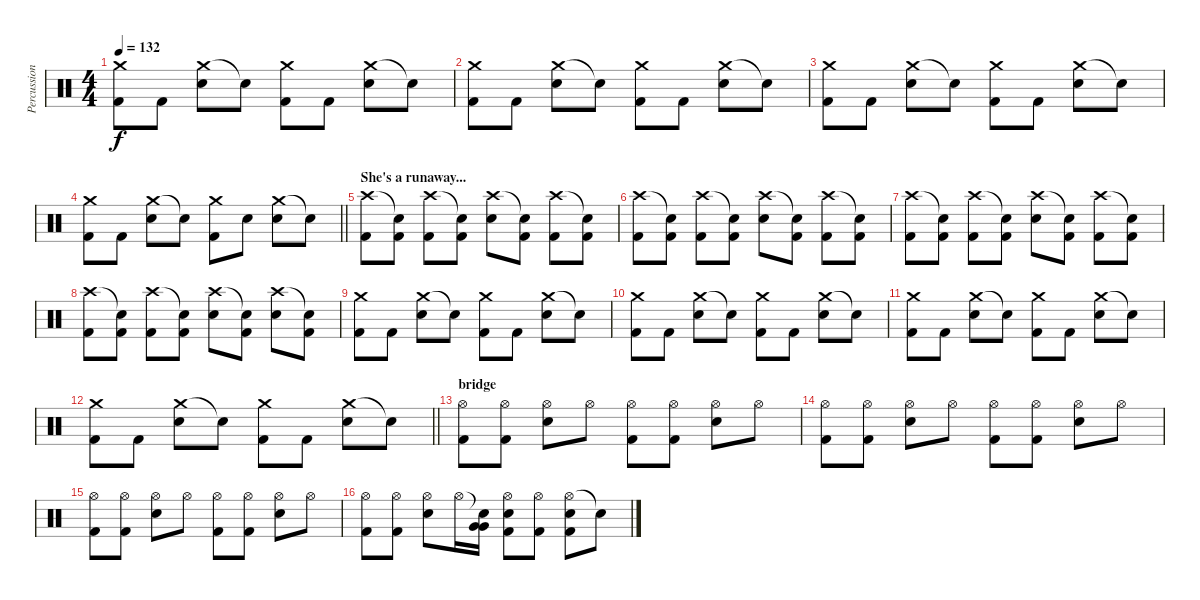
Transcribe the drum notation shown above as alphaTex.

\track ("Percussioni" "Percussion") {instrument percussion}
\staff {score}
\articulation defaults
\ts (4 4)
\tempo 132
\clef neutral
\ks c
("Crash medium (hit)" "Kick (hit) 2").8{dy f} "Kick (hit) 2".8 ("Crash medium (hit)" "Snare (hit) 2").8 "Snare (hit)"{t}.8 ("Crash medium (hit)" "Kick (hit) 2").8 "Kick (hit) 2".8 ("Crash medium (hit)" "Snare (hit) 2").8 "Snare (hit)"{t}.8 |
("Crash medium (hit)" "Kick (hit) 2").8 "Kick (hit) 2".8 ("Crash medium (hit)" "Snare (hit) 2").8 "Snare (hit)"{t}.8 ("Crash medium (hit)" "Kick (hit) 2").8 "Kick (hit) 2".8 ("Crash medium (hit)" "Snare (hit) 2").8 "Snare (hit)"{t}.8 |
("Crash medium (hit)" "Kick (hit) 2").8 "Kick (hit) 2".8 ("Crash medium (hit)" "Snare (hit) 2").8 "Snare (hit)"{t}.8 ("Crash medium (hit)" "Kick (hit) 2").8 "Kick (hit) 2".8 ("Crash medium (hit)" "Snare (hit) 2").8 "Snare (hit)"{t}.8 |
\barLineRight lightlight
("Crash medium (hit)" "Kick (hit) 2").8 "Kick (hit) 2".8 ("Crash medium (hit)" "Snare (hit) 2").8 "Snare (hit)"{t}.8 ("Crash medium (hit)" "Kick (hit) 2").8 "Snare (hit) 2".8 ("Crash medium (hit)" "Snare (hit) 2").8 "Snare (hit)"{t}.8 |
\section ("" "She's a runaway...")
("Crash high (hit)" "Kick (hit) 2").8 ("Snare (hit)"{t} "Kick (hit) 2").8 ("Crash high (hit)" "Kick (hit) 2").8 ("Snare (hit)"{t} "Kick (hit) 2").8 ("Crash high (hit)" "Snare (hit) 2").8 ("Snare (hit)"{t} "Kick (hit) 2").8 ("Crash high (hit)" "Kick (hit) 2").8 ("Snare (hit)"{t} "Kick (hit) 2").8 |
("Crash high (hit)" "Kick (hit) 2").8 ("Snare (hit)"{t} "Kick (hit) 2").8 ("Crash high (hit)" "Kick (hit) 2").8 ("Snare (hit)"{t} "Kick (hit) 2").8 ("Crash high (hit)" "Snare (hit) 2").8 ("Snare (hit)"{t} "Kick (hit) 2").8 ("Crash high (hit)" "Kick (hit) 2").8 ("Snare (hit)"{t} "Kick (hit) 2").8 |
("Crash high (hit)" "Kick (hit) 2").8 ("Snare (hit)"{t} "Kick (hit) 2").8 ("Crash high (hit)" "Kick (hit) 2").8 ("Snare (hit)"{t} "Kick (hit) 2").8 ("Crash high (hit)" "Snare (hit) 2").8 ("Snare (hit)"{t} "Kick (hit) 2").8 ("Crash high (hit)" "Kick (hit) 2").8 ("Snare (hit)"{t} "Kick (hit) 2").8 |
("Crash high (hit)" "Kick (hit) 2").8 ("Snare (hit)"{t} "Kick (hit) 2").8 ("Crash high (hit)" "Kick (hit) 2").8 ("Snare (hit)"{t} "Kick (hit) 2").8 ("Crash high (hit)" "Snare (hit) 2").8 ("Snare (hit)"{t} "Kick (hit) 2").8 ("Crash high (hit)" "Snare (hit) 2").8 ("Snare (hit)"{t} "Kick (hit) 2").8 |
("Crash medium (hit)" "Kick (hit) 2").8 "Kick (hit) 2".8 ("Crash medium (hit)" "Snare (hit) 2").8 "Snare (hit)"{t}.8 ("Crash medium (hit)" "Kick (hit) 2").8 "Kick (hit) 2".8 ("Crash medium (hit)" "Snare (hit) 2").8 "Snare (hit)"{t}.8 |
("Crash medium (hit)" "Kick (hit) 2").8 "Kick (hit) 2".8 ("Crash medium (hit)" "Snare (hit) 2").8 "Snare (hit)"{t}.8 ("Crash medium (hit)" "Kick (hit) 2").8 "Kick (hit) 2".8 ("Crash medium (hit)" "Snare (hit) 2").8 "Snare (hit)"{t}.8 |
("Crash medium (hit)" "Kick (hit) 2").8 "Kick (hit) 2".8 ("Crash medium (hit)" "Snare (hit) 2").8 "Snare (hit)"{t}.8 ("Crash medium (hit)" "Kick (hit) 2").8 "Kick (hit) 2".8 ("Crash medium (hit)" "Snare (hit) 2").8 "Snare (hit)"{t}.8 |
\barLineRight lightlight
("Crash medium (hit)" "Kick (hit) 2").8 "Kick (hit) 2".8 ("Crash medium (hit)" "Snare (hit) 2").8 "Snare (hit)"{t}.8 ("Crash medium (hit)" "Kick (hit) 2").8 "Kick (hit) 2".8 ("Crash medium (hit)" "Snare (hit) 2").8 "Snare (hit)"{t}.8 |
\section ("" "bridge")
("Hi-Hat (open)" "Kick (hit) 2").8{volume 14} ("Hi-Hat (open)" "Kick (hit) 2").8 ("Hi-Hat (open)" "Snare (hit) 2").8 "Hi-Hat (open)".8 ("Hi-Hat (open)" "Kick (hit) 2").8 ("Hi-Hat (open)" "Kick (hit) 2").8 ("Hi-Hat (open)" "Snare (hit) 2").8 "Hi-Hat (open)".8 |
("Hi-Hat (open)" "Kick (hit) 2").8 ("Hi-Hat (open)" "Kick (hit) 2").8 ("Hi-Hat (open)" "Snare (hit) 2").8 "Hi-Hat (open)".8 ("Hi-Hat (open)" "Kick (hit) 2").8 ("Hi-Hat (open)" "Kick (hit) 2").8 ("Hi-Hat (open)" "Snare (hit) 2").8 "Hi-Hat (open)".8 |
("Hi-Hat (open)" "Kick (hit) 2").8 ("Hi-Hat (open)" "Kick (hit) 2").8 ("Hi-Hat (open)" "Snare (hit) 2").8 "Hi-Hat (open)".8 ("Hi-Hat (open)" "Kick (hit) 2").8 ("Hi-Hat (open)" "Kick (hit) 2").8 ("Hi-Hat (open)" "Snare (hit) 2").8 "Hi-Hat (open)".8 |
("Hi-Hat (open)" "Kick (hit) 2").8 ("Hi-Hat (open)" "Kick (hit) 2").8 ("Hi-Hat (open)" "Snare (hit) 2").8 "Hi-Hat (open)".16 ("Snare (hit)"{t} "Very Low Tom (hit)" "Very Low Tom (hit)").16 ("Hi-Hat (open)" "Snare (hit) 2" "Kick (hit) 2").8 ("Hi-Hat (open)" "Kick (hit) 2").8 ("Hi-Hat (open)" "Snare (hit) 2" "Kick (hit) 2").8 "Snare (hit)"{t}.8
